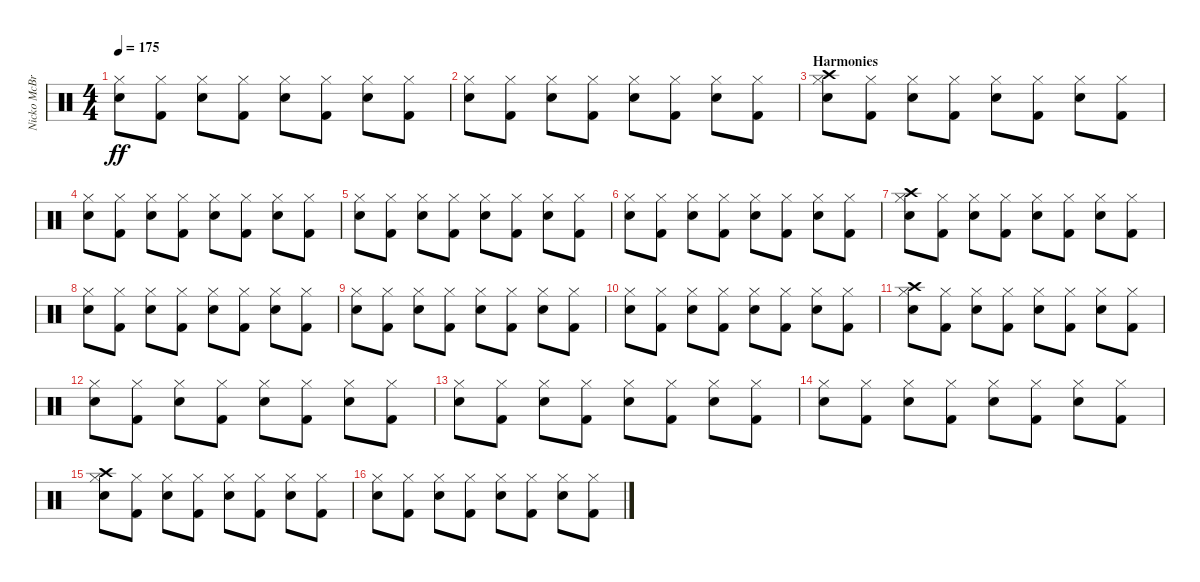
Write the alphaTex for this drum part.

\track ("Nicko McBrain" "Nicko McBr") {instrument percussion}
\staff {score}
\articulation defaults
\ts (4 4)
\tempo 175
\clef neutral
\ks c
("Snare (hit) 2" "Hi-Hat (closed)").8{dy ff} ("Kick (hit) 2" "Hi-Hat (closed)").8 ("Snare (hit) 2" "Hi-Hat (closed)").8 ("Kick (hit) 2" "Hi-Hat (closed)").8 ("Snare (hit) 2" "Hi-Hat (closed)").8 ("Kick (hit) 2" "Hi-Hat (closed)").8 ("Snare (hit) 2" "Hi-Hat (closed)").8 ("Kick (hit) 2" "Hi-Hat (closed)").8 |
("Snare (hit) 2" "Hi-Hat (closed)").8 ("Kick (hit) 2" "Hi-Hat (closed)").8 ("Snare (hit) 2" "Hi-Hat (closed)").8 ("Kick (hit) 2" "Hi-Hat (closed)").8 ("Snare (hit) 2" "Hi-Hat (closed)").8 ("Kick (hit) 2" "Hi-Hat (closed)").8 ("Snare (hit) 2" "Hi-Hat (closed)").8 ("Kick (hit) 2" "Hi-Hat (closed)").8 |
\section ("" "Harmonies")
("Snare (hit) 2" "Hi-Hat (closed)" "Crash high (hit)").8 ("Kick (hit) 2" "Hi-Hat (closed)").8 ("Snare (hit) 2" "Hi-Hat (closed)").8 ("Kick (hit) 2" "Hi-Hat (closed)").8 ("Snare (hit) 2" "Hi-Hat (closed)").8 ("Kick (hit) 2" "Hi-Hat (closed)").8 ("Snare (hit) 2" "Hi-Hat (closed)").8 ("Kick (hit) 2" "Hi-Hat (closed)").8 |
("Snare (hit) 2" "Hi-Hat (closed)").8 ("Kick (hit) 2" "Hi-Hat (closed)").8 ("Snare (hit) 2" "Hi-Hat (closed)").8 ("Kick (hit) 2" "Hi-Hat (closed)").8 ("Snare (hit) 2" "Hi-Hat (closed)").8 ("Kick (hit) 2" "Hi-Hat (closed)").8 ("Snare (hit) 2" "Hi-Hat (closed)").8 ("Kick (hit) 2" "Hi-Hat (closed)").8 |
("Snare (hit) 2" "Hi-Hat (closed)").8 ("Kick (hit) 2" "Hi-Hat (closed)").8 ("Snare (hit) 2" "Hi-Hat (closed)").8 ("Kick (hit) 2" "Hi-Hat (closed)").8 ("Snare (hit) 2" "Hi-Hat (closed)").8 ("Kick (hit) 2" "Hi-Hat (closed)").8 ("Snare (hit) 2" "Hi-Hat (closed)").8 ("Kick (hit) 2" "Hi-Hat (closed)").8 |
("Snare (hit) 2" "Hi-Hat (closed)").8 ("Kick (hit) 2" "Hi-Hat (closed)").8 ("Snare (hit) 2" "Hi-Hat (closed)").8 ("Kick (hit) 2" "Hi-Hat (closed)").8 ("Snare (hit) 2" "Hi-Hat (closed)").8 ("Kick (hit) 2" "Hi-Hat (closed)").8 ("Snare (hit) 2" "Hi-Hat (closed)").8 ("Kick (hit) 2" "Hi-Hat (closed)").8 |
("Snare (hit) 2" "Hi-Hat (closed)" "Crash high (hit)").8 ("Kick (hit) 2" "Hi-Hat (closed)").8 ("Snare (hit) 2" "Hi-Hat (closed)").8 ("Kick (hit) 2" "Hi-Hat (closed)").8 ("Snare (hit) 2" "Hi-Hat (closed)").8 ("Kick (hit) 2" "Hi-Hat (closed)").8 ("Snare (hit) 2" "Hi-Hat (closed)").8 ("Kick (hit) 2" "Hi-Hat (closed)").8 |
("Snare (hit) 2" "Hi-Hat (closed)").8 ("Kick (hit) 2" "Hi-Hat (closed)").8 ("Snare (hit) 2" "Hi-Hat (closed)").8 ("Kick (hit) 2" "Hi-Hat (closed)").8 ("Snare (hit) 2" "Hi-Hat (closed)").8 ("Kick (hit) 2" "Hi-Hat (closed)").8 ("Snare (hit) 2" "Hi-Hat (closed)").8 ("Kick (hit) 2" "Hi-Hat (closed)").8 |
("Snare (hit) 2" "Hi-Hat (closed)").8 ("Kick (hit) 2" "Hi-Hat (closed)").8 ("Snare (hit) 2" "Hi-Hat (closed)").8 ("Kick (hit) 2" "Hi-Hat (closed)").8 ("Snare (hit) 2" "Hi-Hat (closed)").8 ("Kick (hit) 2" "Hi-Hat (closed)").8 ("Snare (hit) 2" "Hi-Hat (closed)").8 ("Kick (hit) 2" "Hi-Hat (closed)").8 |
("Snare (hit) 2" "Hi-Hat (closed)").8 ("Kick (hit) 2" "Hi-Hat (closed)").8 ("Snare (hit) 2" "Hi-Hat (closed)").8 ("Kick (hit) 2" "Hi-Hat (closed)").8 ("Snare (hit) 2" "Hi-Hat (closed)").8 ("Kick (hit) 2" "Hi-Hat (closed)").8 ("Snare (hit) 2" "Hi-Hat (closed)").8 ("Kick (hit) 2" "Hi-Hat (closed)").8 |
("Snare (hit) 2" "Hi-Hat (closed)" "Crash high (hit)").8 ("Kick (hit) 2" "Hi-Hat (closed)").8 ("Snare (hit) 2" "Hi-Hat (closed)").8 ("Kick (hit) 2" "Hi-Hat (closed)").8 ("Snare (hit) 2" "Hi-Hat (closed)").8 ("Kick (hit) 2" "Hi-Hat (closed)").8 ("Snare (hit) 2" "Hi-Hat (closed)").8 ("Kick (hit) 2" "Hi-Hat (closed)").8 |
("Snare (hit) 2" "Hi-Hat (closed)").8 ("Kick (hit) 2" "Hi-Hat (closed)").8 ("Snare (hit) 2" "Hi-Hat (closed)").8 ("Kick (hit) 2" "Hi-Hat (closed)").8 ("Snare (hit) 2" "Hi-Hat (closed)").8 ("Kick (hit) 2" "Hi-Hat (closed)").8 ("Snare (hit) 2" "Hi-Hat (closed)").8 ("Kick (hit) 2" "Hi-Hat (closed)").8 |
("Snare (hit) 2" "Hi-Hat (closed)").8 ("Kick (hit) 2" "Hi-Hat (closed)").8 ("Snare (hit) 2" "Hi-Hat (closed)").8 ("Kick (hit) 2" "Hi-Hat (closed)").8 ("Snare (hit) 2" "Hi-Hat (closed)").8 ("Kick (hit) 2" "Hi-Hat (closed)").8 ("Snare (hit) 2" "Hi-Hat (closed)").8 ("Kick (hit) 2" "Hi-Hat (closed)").8 |
("Snare (hit) 2" "Hi-Hat (closed)").8 ("Kick (hit) 2" "Hi-Hat (closed)").8 ("Snare (hit) 2" "Hi-Hat (closed)").8 ("Kick (hit) 2" "Hi-Hat (closed)").8 ("Snare (hit) 2" "Hi-Hat (closed)").8 ("Kick (hit) 2" "Hi-Hat (closed)").8 ("Snare (hit) 2" "Hi-Hat (closed)").8 ("Kick (hit) 2" "Hi-Hat (closed)").8 |
("Snare (hit) 2" "Hi-Hat (closed)" "Crash high (hit)").8 ("Kick (hit) 2" "Hi-Hat (closed)").8 ("Snare (hit) 2" "Hi-Hat (closed)").8 ("Kick (hit) 2" "Hi-Hat (closed)").8 ("Snare (hit) 2" "Hi-Hat (closed)").8 ("Kick (hit) 2" "Hi-Hat (closed)").8 ("Snare (hit) 2" "Hi-Hat (closed)").8 ("Kick (hit) 2" "Hi-Hat (closed)").8 |
("Snare (hit) 2" "Hi-Hat (closed)").8 ("Kick (hit) 2" "Hi-Hat (closed)").8 ("Snare (hit) 2" "Hi-Hat (closed)").8 ("Kick (hit) 2" "Hi-Hat (closed)").8 ("Snare (hit) 2" "Hi-Hat (closed)").8 ("Kick (hit) 2" "Hi-Hat (closed)").8 ("Snare (hit) 2" "Hi-Hat (closed)").8 ("Kick (hit) 2" "Hi-Hat (closed)").8
